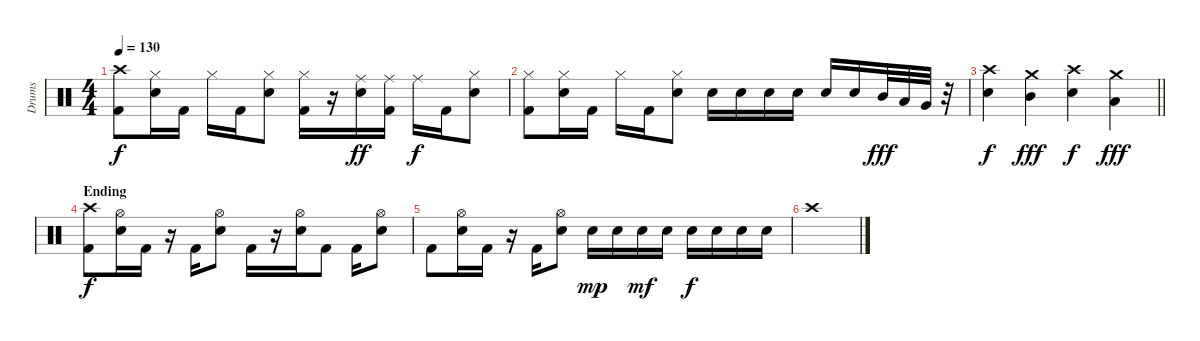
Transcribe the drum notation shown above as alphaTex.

\track ("Drums" "Drums") {instrument percussion}
\staff {score}
\articulation defaults
\ts (4 4)
\tempo 130
\clef neutral
\ks c
("Crash high (hit)" "Kick (hit) 2").8{dy f} ("Hi-Hat (closed)" "Snare (hit) 2").16 "Kick (hit) 2".16 "Hi-Hat (closed)".16 "Kick (hit) 2".16 ("Hi-Hat (closed)" "Snare (hit) 2").8 ("Hi-Hat (closed)" "Kick (hit) 2").16 r.16 ("Ride (middle)" "Snare (hit) 2").16{dy ff} ("Ride (middle)" "Kick (hit) 2").16 "Ride (middle)".16{dy f} "Kick (hit) 2".16 ("Hi-Hat (closed)" "Snare (hit) 2").8 |
("Hi-Hat (closed)" "Kick (hit) 2").8 ("Hi-Hat (closed)" "Snare (hit) 2").16 "Kick (hit) 2".16 "Hi-Hat (closed)".16 "Kick (hit) 2".16 ("Hi-Hat (closed)" "Snare (hit) 2").8 "Snare (hit) 2".16 "Snare (hit) 2".16 "Snare (hit) 2".16 "Snare (hit) 2".16 "Snare (hit) 2".16 "Snare (hit) 2".16 "Mid Tom (hit)".32{dy fff} "Low Tom (hit)".32 "Very Low Tom (hit)".32 r.32 |
\barLineRight lightlight
("Crash high (hit)" "Snare (hit) 2").4{dy f} ("Crash medium (hit)" "Mid Tom (hit)").4{dy fff} ("Crash high (hit)" "Snare (hit) 2").4{dy f} ("Crash medium (hit)" "Low Tom (hit)").4{dy fff} |
\section ("" "Ending")
("Crash high (hit)" "Kick (hit) 2").8{dy f} ("Hi-Hat (open)" "Snare (hit) 2").16 "Kick (hit) 2".16 r.16 "Kick (hit) 2".16 ("Hi-Hat (open)" "Snare (hit) 2").8 "Kick (hit) 2".16 r.16 ("Hi-Hat (open)" "Snare (hit) 2").16 "Kick (hit) 2".8 "Kick (hit) 2".16 ("Hi-Hat (open)" "Snare (hit) 2").8 |
"Kick (hit) 2".8 ("Hi-Hat (open)" "Snare (hit) 2").16 "Kick (hit) 2".16 r.16 "Kick (hit) 2".16 ("Hi-Hat (open)" "Snare (hit) 2").8 "Snare (hit) 2".16{dy mp} "Snare (hit) 2".16 "Snare (hit) 2".16{dy mf} "Snare (hit) 2".16 "Snare (hit) 2".16{dy f} "Snare (hit) 2".16 "Snare (hit) 2".16 "Snare (hit) 2".16 |
"Crash high (hit)".1
